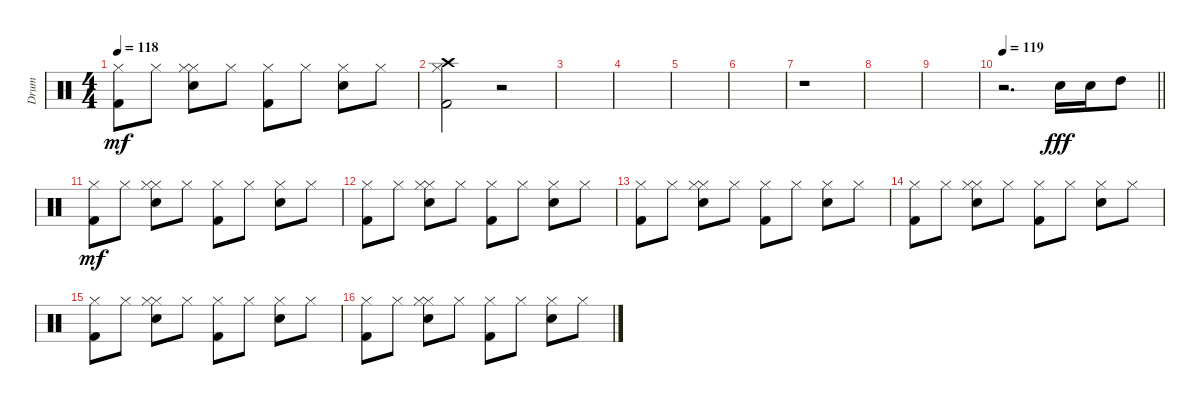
\track ("Drum " "Drum ") {instrument percussion}
\staff {score}
\articulation defaults
\ts (4 4)
\tempo 118
\clef neutral
\ks c
("Hi-Hat (closed)" "Kick (hit) 2").8{dy mf} "Hi-Hat (closed)".8 ("Hi-Hat (closed)" "Hi-Hat (closed)" "Snare (hit) 2").8 "Hi-Hat (closed)".8 ("Hi-Hat (closed)" "Kick (hit) 2").8 "Hi-Hat (closed)".8 ("Hi-Hat (closed)" "Snare (hit) 2").8 "Hi-Hat (closed)".8 |
("Hi-Hat (closed)" "Kick (hit) 2" "Crash high (hit)").2 r.2 |
|
|
|
|
r.1 |
|
|
\tempo 119
\barLineRight lightlight
r.2{d} "Snare (hit) 2".16{dy fff} "Snare (hit) 2".16 "High Tom (hit)".8 |
("Hi-Hat (closed)" "Kick (hit) 2").8{dy mf} "Hi-Hat (closed)".8 ("Hi-Hat (closed)" "Hi-Hat (closed)" "Snare (hit) 2").8 "Hi-Hat (closed)".8 ("Hi-Hat (closed)" "Kick (hit) 2").8 "Hi-Hat (closed)".8 ("Hi-Hat (closed)" "Snare (hit) 2").8 "Hi-Hat (closed)".8 |
("Hi-Hat (closed)" "Kick (hit) 2").8 "Hi-Hat (closed)".8 ("Hi-Hat (closed)" "Hi-Hat (closed)" "Snare (hit) 2").8 "Hi-Hat (closed)".8 ("Hi-Hat (closed)" "Kick (hit) 2").8 "Hi-Hat (closed)".8 ("Hi-Hat (closed)" "Snare (hit) 2").8 "Hi-Hat (closed)".8 |
("Hi-Hat (closed)" "Kick (hit) 2").8 "Hi-Hat (closed)".8 ("Hi-Hat (closed)" "Hi-Hat (closed)" "Snare (hit) 2").8 "Hi-Hat (closed)".8 ("Hi-Hat (closed)" "Kick (hit) 2").8 "Hi-Hat (closed)".8 ("Hi-Hat (closed)" "Snare (hit) 2").8 "Hi-Hat (closed)".8 |
("Hi-Hat (closed)" "Kick (hit) 2").8 "Hi-Hat (closed)".8 ("Hi-Hat (closed)" "Hi-Hat (closed)" "Snare (hit) 2").8 "Hi-Hat (closed)".8 ("Hi-Hat (closed)" "Kick (hit) 2").8 "Hi-Hat (closed)".8 ("Hi-Hat (closed)" "Snare (hit) 2").8 "Hi-Hat (closed)".8 |
("Hi-Hat (closed)" "Kick (hit) 2").8 "Hi-Hat (closed)".8 ("Hi-Hat (closed)" "Hi-Hat (closed)" "Snare (hit) 2").8 "Hi-Hat (closed)".8 ("Hi-Hat (closed)" "Kick (hit) 2").8 "Hi-Hat (closed)".8 ("Hi-Hat (closed)" "Snare (hit) 2").8 "Hi-Hat (closed)".8 |
("Hi-Hat (closed)" "Kick (hit) 2").8 "Hi-Hat (closed)".8 ("Hi-Hat (closed)" "Hi-Hat (closed)" "Snare (hit) 2").8 "Hi-Hat (closed)".8 ("Hi-Hat (closed)" "Kick (hit) 2").8 "Hi-Hat (closed)".8 ("Hi-Hat (closed)" "Snare (hit) 2").8 "Hi-Hat (closed)".8
